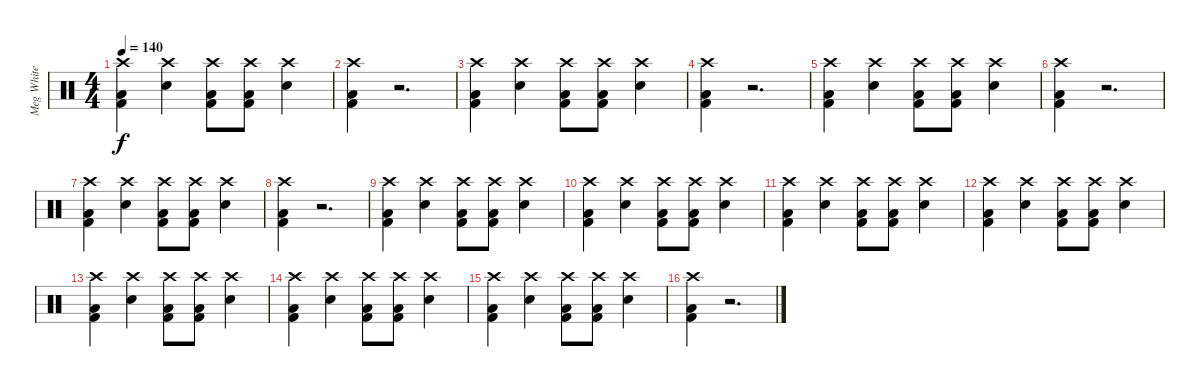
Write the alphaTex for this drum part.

\track ("Meg White" "Meg White") {instrument percussion}
\staff {score}
\articulation defaults
\ts (4 4)
\tempo 140
\clef neutral
\ks c
("Kick (hit) 2" "Low Floor Tom (hit)" "Crash high (hit)").4{dy f} ("Electric Snare (hit)" "Crash high (hit)").4 ("Kick (hit) 2" "Low Floor Tom (hit)" "Crash high (hit)").8 ("Kick (hit) 2" "Low Floor Tom (hit)" "Crash high (hit)").8 ("Electric Snare (hit)" "Crash high (hit)").4 |
("Kick (hit) 2" "Low Floor Tom (hit)" "Crash high (hit)").4 r.2{d} |
("Kick (hit) 2" "Low Floor Tom (hit)" "Crash high (hit)").4 ("Electric Snare (hit)" "Crash high (hit)").4 ("Kick (hit) 2" "Low Floor Tom (hit)" "Crash high (hit)").8 ("Kick (hit) 2" "Low Floor Tom (hit)" "Crash high (hit)").8 ("Electric Snare (hit)" "Crash high (hit)").4 |
("Kick (hit) 2" "Low Floor Tom (hit)" "Crash high (hit)").4 r.2{d} |
("Kick (hit) 2" "Low Floor Tom (hit)" "Crash high (hit)").4 ("Electric Snare (hit)" "Crash high (hit)").4 ("Kick (hit) 2" "Low Floor Tom (hit)" "Crash high (hit)").8 ("Kick (hit) 2" "Low Floor Tom (hit)" "Crash high (hit)").8 ("Electric Snare (hit)" "Crash high (hit)").4 |
("Kick (hit) 2" "Low Floor Tom (hit)" "Crash high (hit)").4 r.2{d} |
("Kick (hit) 2" "Low Floor Tom (hit)" "Crash high (hit)").4 ("Electric Snare (hit)" "Crash high (hit)").4 ("Kick (hit) 2" "Low Floor Tom (hit)" "Crash high (hit)").8 ("Kick (hit) 2" "Low Floor Tom (hit)" "Crash high (hit)").8 ("Electric Snare (hit)" "Crash high (hit)").4 |
("Kick (hit) 2" "Low Floor Tom (hit)" "Crash high (hit)").4 r.2{d} |
("Kick (hit) 2" "Low Floor Tom (hit)" "Crash high (hit)").4 ("Electric Snare (hit)" "Crash high (hit)").4 ("Kick (hit) 2" "Low Floor Tom (hit)" "Crash high (hit)").8 ("Kick (hit) 2" "Low Floor Tom (hit)" "Crash high (hit)").8 ("Electric Snare (hit)" "Crash high (hit)").4 |
("Kick (hit) 2" "Low Floor Tom (hit)" "Crash high (hit)").4 ("Electric Snare (hit)" "Crash high (hit)").4 ("Kick (hit) 2" "Low Floor Tom (hit)" "Crash high (hit)").8 ("Kick (hit) 2" "Low Floor Tom (hit)" "Crash high (hit)").8 ("Electric Snare (hit)" "Crash high (hit)").4 |
("Kick (hit) 2" "Low Floor Tom (hit)" "Crash high (hit)").4 ("Electric Snare (hit)" "Crash high (hit)").4 ("Kick (hit) 2" "Low Floor Tom (hit)" "Crash high (hit)").8 ("Kick (hit) 2" "Low Floor Tom (hit)" "Crash high (hit)").8 ("Electric Snare (hit)" "Crash high (hit)").4 |
("Kick (hit) 2" "Low Floor Tom (hit)" "Crash high (hit)").4 ("Electric Snare (hit)" "Crash high (hit)").4 ("Kick (hit) 2" "Low Floor Tom (hit)" "Crash high (hit)").8 ("Kick (hit) 2" "Low Floor Tom (hit)" "Crash high (hit)").8 ("Electric Snare (hit)" "Crash high (hit)").4 |
("Kick (hit) 2" "Low Floor Tom (hit)" "Crash high (hit)").4 ("Electric Snare (hit)" "Crash high (hit)").4 ("Kick (hit) 2" "Low Floor Tom (hit)" "Crash high (hit)").8 ("Kick (hit) 2" "Low Floor Tom (hit)" "Crash high (hit)").8 ("Electric Snare (hit)" "Crash high (hit)").4 |
("Kick (hit) 2" "Low Floor Tom (hit)" "Crash high (hit)").4 ("Electric Snare (hit)" "Crash high (hit)").4 ("Kick (hit) 2" "Low Floor Tom (hit)" "Crash high (hit)").8 ("Kick (hit) 2" "Low Floor Tom (hit)" "Crash high (hit)").8 ("Electric Snare (hit)" "Crash high (hit)").4 |
("Kick (hit) 2" "Low Floor Tom (hit)" "Crash high (hit)").4 ("Electric Snare (hit)" "Crash high (hit)").4 ("Kick (hit) 2" "Low Floor Tom (hit)" "Crash high (hit)").8 ("Kick (hit) 2" "Low Floor Tom (hit)" "Crash high (hit)").8 ("Electric Snare (hit)" "Crash high (hit)").4 |
("Kick (hit) 2" "Low Floor Tom (hit)" "Crash high (hit)").4 r.2{d}
